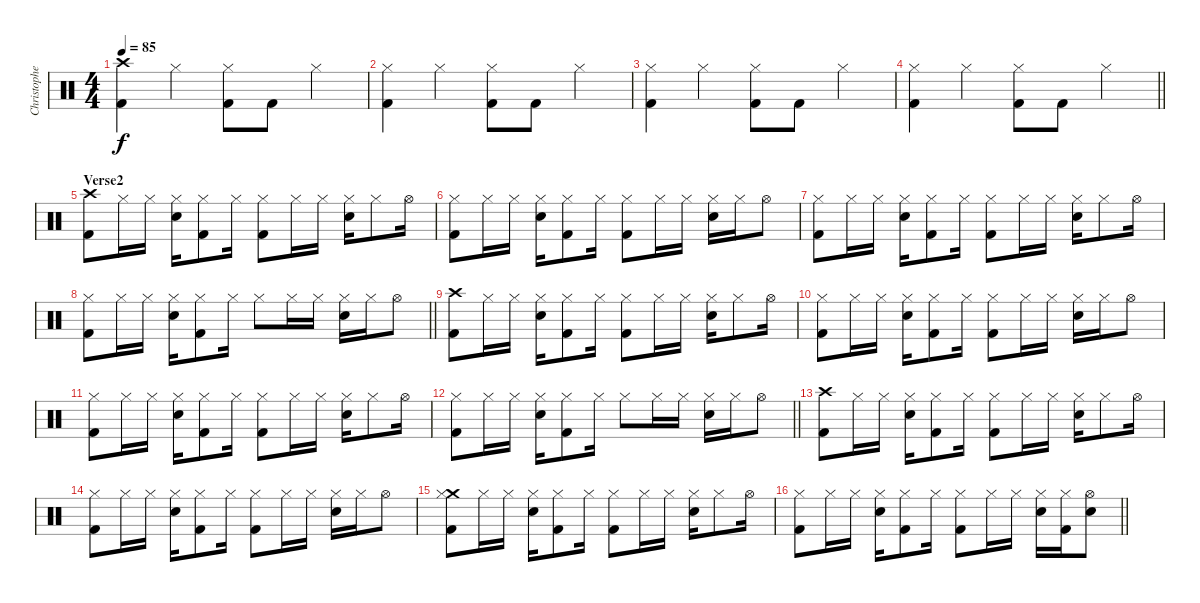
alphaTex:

\track ("Christopher" "Christophe") {instrument percussion}
\staff {score}
\articulation defaults
\ts (4 4)
\tempo 85
\clef neutral
\ks c
("Crash high (hit)" "Kick (hit) 2").4{dy f} "Hi-Hat (closed)".4 ("Hi-Hat (closed)" "Kick (hit) 2").8 "Kick (hit) 2".8 "Hi-Hat (closed)".4 |
("Hi-Hat (closed)" "Kick (hit) 2").4 "Hi-Hat (closed)".4 ("Hi-Hat (closed)" "Kick (hit) 2").8 "Kick (hit) 2".8 "Hi-Hat (closed)".4 |
("Hi-Hat (closed)" "Kick (hit) 2").4 "Hi-Hat (closed)".4 ("Hi-Hat (closed)" "Kick (hit) 2").8 "Kick (hit) 2".8 "Hi-Hat (closed)".4 |
\barLineRight lightlight
("Hi-Hat (closed)" "Kick (hit) 2").4 "Hi-Hat (closed)".4 ("Hi-Hat (closed)" "Kick (hit) 2").8 "Kick (hit) 2".8 "Hi-Hat (closed)".4 |
\section ("" "Verse2")
("Crash high (hit)" "Kick (hit) 2").8 "Hi-Hat (closed)".16 "Hi-Hat (closed)".16 ("Hi-Hat (closed)" "Snare (hit) 2").16 ("Hi-Hat (closed)" "Kick (hit) 2").8 "Hi-Hat (closed)".16 ("Hi-Hat (closed)" "Kick (hit) 2").8 "Hi-Hat (closed)".16 "Hi-Hat (closed)".16 ("Hi-Hat (closed)" "Snare (hit) 2").16 "Hi-Hat (closed)".8 "Hi-Hat (open)".16 |
("Hi-Hat (closed)" "Kick (hit) 2").8 "Hi-Hat (closed)".16 "Hi-Hat (closed)".16 ("Hi-Hat (closed)" "Snare (hit) 2").16 ("Hi-Hat (closed)" "Kick (hit) 2").8 "Hi-Hat (closed)".16 ("Hi-Hat (closed)" "Kick (hit) 2").8 "Hi-Hat (closed)".16 "Hi-Hat (closed)".16 ("Hi-Hat (closed)" "Snare (hit) 2").16 "Hi-Hat (closed)".16 "Hi-Hat (open)".8 |
("Hi-Hat (closed)" "Kick (hit) 2").8 "Hi-Hat (closed)".16 "Hi-Hat (closed)".16 ("Hi-Hat (closed)" "Snare (hit) 2").16 ("Hi-Hat (closed)" "Kick (hit) 2").8 "Hi-Hat (closed)".16 ("Hi-Hat (closed)" "Kick (hit) 2").8 "Hi-Hat (closed)".16 "Hi-Hat (closed)".16 ("Hi-Hat (closed)" "Snare (hit) 2").16 "Hi-Hat (closed)".8 "Hi-Hat (open)".16 |
\barLineRight lightlight
("Hi-Hat (closed)" "Kick (hit) 2").8 "Hi-Hat (closed)".16 "Hi-Hat (closed)".16 ("Hi-Hat (closed)" "Snare (hit) 2").16 ("Hi-Hat (closed)" "Kick (hit) 2").8 "Hi-Hat (closed)".16 "Hi-Hat (closed)".8 "Hi-Hat (closed)".16 "Hi-Hat (closed)".16 ("Hi-Hat (closed)" "Snare (hit) 2").16 "Hi-Hat (closed)".16 "Hi-Hat (open)".8 |
("Crash high (hit)" "Kick (hit) 2").8 "Hi-Hat (closed)".16 "Hi-Hat (closed)".16 ("Hi-Hat (closed)" "Snare (hit) 2").16 ("Hi-Hat (closed)" "Kick (hit) 2").8 "Hi-Hat (closed)".16 ("Hi-Hat (closed)" "Kick (hit) 2").8 "Hi-Hat (closed)".16 "Hi-Hat (closed)".16 ("Hi-Hat (closed)" "Snare (hit) 2").16 "Hi-Hat (closed)".8 "Hi-Hat (open)".16 |
("Hi-Hat (closed)" "Kick (hit) 2").8 "Hi-Hat (closed)".16 "Hi-Hat (closed)".16 ("Hi-Hat (closed)" "Snare (hit) 2").16 ("Hi-Hat (closed)" "Kick (hit) 2").8 "Hi-Hat (closed)".16 ("Hi-Hat (closed)" "Kick (hit) 2").8 "Hi-Hat (closed)".16 "Hi-Hat (closed)".16 ("Hi-Hat (closed)" "Snare (hit) 2").16 "Hi-Hat (closed)".16 "Hi-Hat (open)".8 |
("Hi-Hat (closed)" "Kick (hit) 2").8 "Hi-Hat (closed)".16 "Hi-Hat (closed)".16 ("Hi-Hat (closed)" "Snare (hit) 2").16 ("Hi-Hat (closed)" "Kick (hit) 2").8 "Hi-Hat (closed)".16 ("Hi-Hat (closed)" "Kick (hit) 2").8 "Hi-Hat (closed)".16 "Hi-Hat (closed)".16 ("Hi-Hat (closed)" "Snare (hit) 2").16 "Hi-Hat (closed)".8 "Hi-Hat (open)".16 |
\barLineRight lightlight
("Hi-Hat (closed)" "Kick (hit) 2").8 "Hi-Hat (closed)".16 "Hi-Hat (closed)".16 ("Hi-Hat (closed)" "Snare (hit) 2").16 ("Hi-Hat (closed)" "Kick (hit) 2").8 "Hi-Hat (closed)".16 "Hi-Hat (closed)".8 "Hi-Hat (closed)".16 "Hi-Hat (closed)".16 ("Hi-Hat (closed)" "Snare (hit) 2").16 "Hi-Hat (closed)".16 "Hi-Hat (open)".8 |
("Crash high (hit)" "Kick (hit) 2").8 "Hi-Hat (closed)".16 "Hi-Hat (closed)".16 ("Hi-Hat (closed)" "Snare (hit) 2").16 ("Hi-Hat (closed)" "Kick (hit) 2").8 "Hi-Hat (closed)".16 ("Hi-Hat (closed)" "Kick (hit) 2").8 "Hi-Hat (closed)".16 "Hi-Hat (closed)".16 ("Hi-Hat (closed)" "Snare (hit) 2").16 "Hi-Hat (closed)".8 "Hi-Hat (open)".16 |
("Hi-Hat (closed)" "Kick (hit) 2").8 "Hi-Hat (closed)".16 "Hi-Hat (closed)".16 ("Hi-Hat (closed)" "Snare (hit) 2").16 ("Hi-Hat (closed)" "Kick (hit) 2").8 "Hi-Hat (closed)".16 ("Hi-Hat (closed)" "Kick (hit) 2").8 "Hi-Hat (closed)".16 "Hi-Hat (closed)".16 ("Hi-Hat (closed)" "Snare (hit) 2").16 "Hi-Hat (closed)".16 "Hi-Hat (open)".8 |
("Crash medium (hit)" "Hi-Hat (closed)" "Kick (hit) 2").8 "Hi-Hat (closed)".16 "Hi-Hat (closed)".16 ("Hi-Hat (closed)" "Snare (hit) 2").16 ("Hi-Hat (closed)" "Kick (hit) 2").8 "Hi-Hat (closed)".16 ("Hi-Hat (closed)" "Kick (hit) 2").8 "Hi-Hat (closed)".16 "Hi-Hat (closed)".16 ("Hi-Hat (closed)" "Snare (hit) 2").16 "Hi-Hat (closed)".8 "Hi-Hat (open)".16 |
\barLineRight lightlight
("Hi-Hat (closed)" "Kick (hit) 2").8 "Hi-Hat (closed)".16 "Hi-Hat (closed)".16 ("Hi-Hat (closed)" "Snare (hit) 2").16 ("Hi-Hat (closed)" "Kick (hit) 2").8 "Hi-Hat (closed)".16 ("Hi-Hat (closed)" "Kick (hit) 2").8 "Hi-Hat (closed)".16 "Hi-Hat (closed)".16 ("Hi-Hat (closed)" "Snare (hit) 2").16 ("Hi-Hat (closed)" "Kick (hit) 2").16 ("Hi-Hat (open)" "Snare (hit) 2").8
